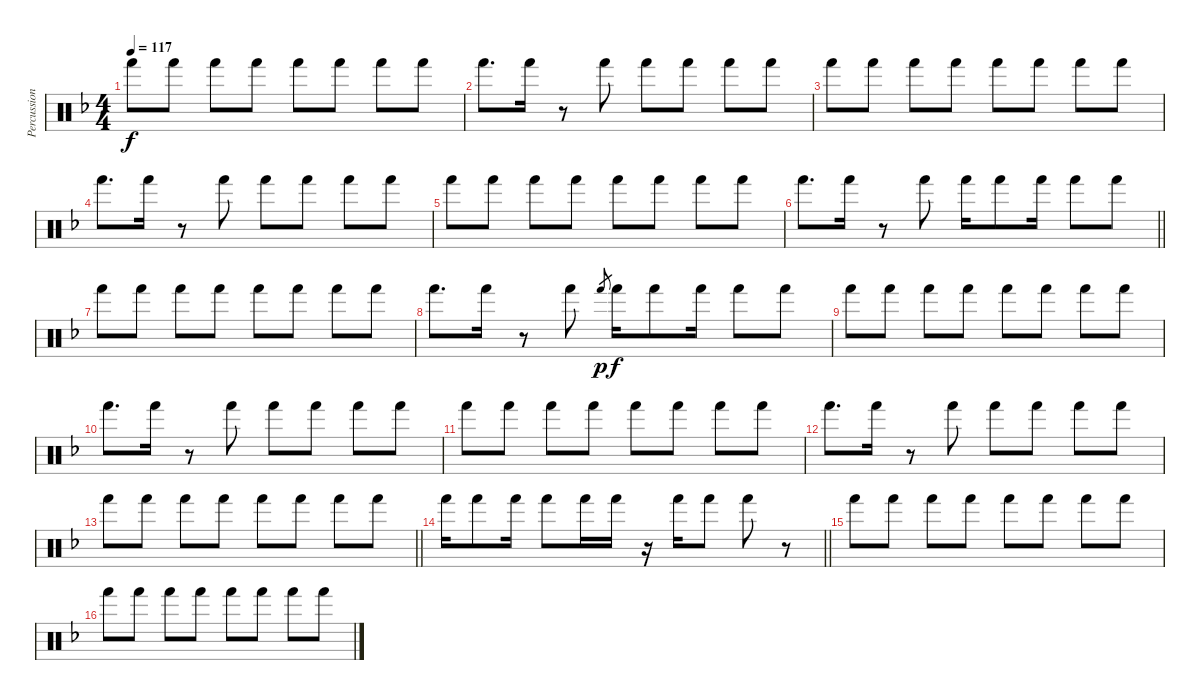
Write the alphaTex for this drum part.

\track ("Percussion" "Percussion") {instrument percussion}
\staff {score}
\articulation defaults
\ts (4 4)
\tempo 117
\clef neutral
\ks f "Hand (hit)".8{dy f} "Hand (hit)".8 "Hand (hit)".8 "Hand (hit)".8 "Hand (hit)".8 "Hand (hit)".8 "Hand (hit)".8 "Hand (hit)".8
|
"Hand (hit)".8{d} "Hand (hit)".16 r.8 "Hand (hit)".8 "Hand (hit)".8 "Hand (hit)".8 "Hand (hit)".8 "Hand (hit)".8 |
"Hand (hit)".8 "Hand (hit)".8 "Hand (hit)".8 "Hand (hit)".8 "Hand (hit)".8 "Hand (hit)".8 "Hand (hit)".8 "Hand (hit)".8 |
"Hand (hit)".8{d} "Hand (hit)".16 r.8 "Hand (hit)".8 "Hand (hit)".8 "Hand (hit)".8 "Hand (hit)".8 "Hand (hit)".8 |
"Hand (hit)".8 "Hand (hit)".8 "Hand (hit)".8 "Hand (hit)".8 "Hand (hit)".8 "Hand (hit)".8 "Hand (hit)".8 "Hand (hit)".8 |
\barLineRight lightlight "Hand (hit)".8{d} "Hand (hit)".16
r.8 "Hand (hit)".8 "Hand (hit)".16 "Hand (hit)".8 "Hand (hit)".16 "Hand (hit)".8 "Hand (hit)".8 |
"Hand (hit)".8 "Hand (hit)".8 "Hand (hit)".8 "Hand (hit)".8 "Hand (hit)".8 "Hand (hit)".8 "Hand (hit)".8 "Hand (hit)".8 |
"Hand (hit)".8{d} "Hand (hit)".16 r.8 "Hand (hit)".8 "Hand (hit)".8{gr dy p} "Hand (hit)".16{dy f} "Hand (hit)".8 "Hand (hit)".16 "Hand (hit)".8 "Hand (hit)".8 |
"Hand (hit)".8 "Hand (hit)".8 "Hand (hit)".8 "Hand (hit)".8 "Hand (hit)".8 "Hand (hit)".8 "Hand (hit)".8 "Hand (hit)".8 |
"Hand (hit)".8{d} "Hand (hit)".16 r.8 "Hand (hit)".8 "Hand (hit)".8 "Hand (hit)".8 "Hand (hit)".8 "Hand (hit)".8 |
"Hand (hit)".8 "Hand (hit)".8 "Hand (hit)".8 "Hand (hit)".8 "Hand (hit)".8 "Hand (hit)".8 "Hand (hit)".8 "Hand (hit)".8 |
"Hand (hit)".8{d} "Hand (hit)".16 r.8 "Hand (hit)".8 "Hand (hit)".8 "Hand (hit)".8 "Hand (hit)".8 "Hand (hit)".8 |
\barLineRight lightlight "Hand (hit)".8 "Hand (hit)".8 "Hand (hit)".8 "Hand (hit)".8 "Hand (hit)".8 "Hand (hit)".8 "Hand (hit)".8 "Hand (hit)".8
|
\barLineRight lightlight "Hand (hit)".16 "Hand (hit)".8 "Hand (hit)".16 "Hand (hit)".8 "Hand (hit)".16 "Hand (hit)".16
r.16 "Hand (hit)".16 "Hand (hit)".8 "Hand (hit)".8 r.8 |
"Hand (hit)".8 "Hand (hit)".8 "Hand (hit)".8 "Hand (hit)".8 "Hand (hit)".8 "Hand (hit)".8 "Hand (hit)".8 "Hand (hit)".8 |
"Hand (hit)".8 "Hand (hit)".8 "Hand (hit)".8 "Hand (hit)".8 "Hand (hit)".8 "Hand (hit)".8 "Hand (hit)".8 "Hand (hit)".8
